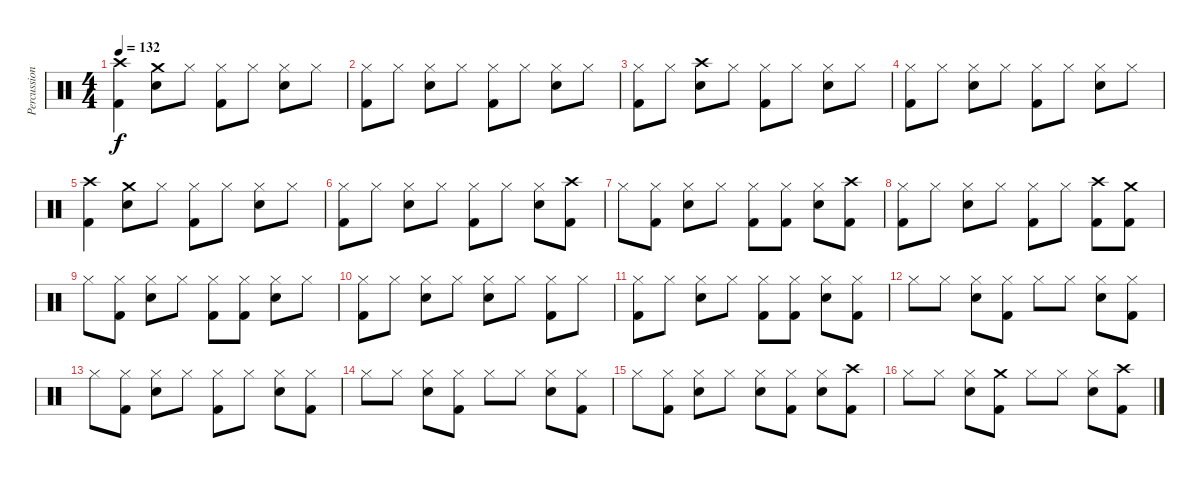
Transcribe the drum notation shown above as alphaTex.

\track ("Percussion" "Percussion") {instrument percussion}
\staff {score}
\articulation defaults
\ts (4 4)
\tempo 132
\clef neutral
\ks c
("Crash high (hit)" "Kick (hit) 2").4{dy f} ("Crash medium (hit)" "Snare (hit) 2").8 "Hi-Hat (closed)".8 ("Hi-Hat (closed)" "Kick (hit) 2").8 "Hi-Hat (closed)".8 ("Hi-Hat (closed)" "Snare (hit) 2").8 "Hi-Hat (closed)".8 |
("Hi-Hat (closed)" "Kick (hit) 2").8 "Hi-Hat (closed)".8 ("Hi-Hat (closed)" "Snare (hit) 2").8 "Hi-Hat (closed)".8 ("Hi-Hat (closed)" "Kick (hit) 2").8 "Hi-Hat (closed)".8 ("Hi-Hat (closed)" "Snare (hit) 2").8 "Hi-Hat (closed)".8 |
("Hi-Hat (closed)" "Kick (hit) 2").8 "Hi-Hat (closed)".8 ("Crash high (hit)" "Snare (hit) 2").8 "Hi-Hat (closed)".8 ("Hi-Hat (closed)" "Kick (hit) 2").8 "Hi-Hat (closed)".8 ("Hi-Hat (closed)" "Snare (hit) 2").8 "Hi-Hat (closed)".8 |
("Hi-Hat (closed)" "Kick (hit) 2").8 "Hi-Hat (closed)".8 ("Hi-Hat (closed)" "Snare (hit) 2").8 "Hi-Hat (closed)".8 ("Hi-Hat (closed)" "Kick (hit) 2").8 "Hi-Hat (closed)".8 ("Hi-Hat (closed)" "Snare (hit) 2").8 "Hi-Hat (closed)".8 |
("Crash high (hit)" "Kick (hit) 2").4 ("Crash medium (hit)" "Snare (hit) 2").8 "Hi-Hat (closed)".8 ("Hi-Hat (closed)" "Kick (hit) 2").8 "Hi-Hat (closed)".8 ("Hi-Hat (closed)" "Snare (hit) 2").8 "Hi-Hat (closed)".8 |
("Hi-Hat (closed)" "Kick (hit) 2").8 "Hi-Hat (closed)".8 ("Hi-Hat (closed)" "Snare (hit) 2").8 "Hi-Hat (closed)".8 ("Hi-Hat (closed)" "Kick (hit) 2").8 "Hi-Hat (closed)".8 ("Hi-Hat (closed)" "Snare (hit) 2").8 ("Crash high (hit)" "Kick (hit) 2").8 |
"Hi-Hat (closed)".8 ("Hi-Hat (closed)" "Kick (hit) 2").8 ("Hi-Hat (closed)" "Snare (hit) 2").8 "Hi-Hat (closed)".8 ("Hi-Hat (closed)" "Kick (hit) 2").8 ("Hi-Hat (closed)" "Kick (hit) 2").8 ("Hi-Hat (closed)" "Snare (hit) 2").8 ("Crash high (hit)" "Kick (hit) 2").8 |
("Hi-Hat (closed)" "Kick (hit) 2").8 "Hi-Hat (closed)".8 ("Hi-Hat (closed)" "Snare (hit) 2").8 "Hi-Hat (closed)".8 ("Hi-Hat (closed)" "Kick (hit) 2").8 "Hi-Hat (closed)".8 ("Crash high (hit)" "Kick (hit) 2").8 ("Crash medium (hit)" "Kick (hit) 2").8 |
"Hi-Hat (closed)".8 ("Hi-Hat (closed)" "Kick (hit) 2").8 ("Hi-Hat (closed)" "Snare (hit) 2").8 "Hi-Hat (closed)".8 ("Hi-Hat (closed)" "Kick (hit) 2").8 ("Hi-Hat (closed)" "Kick (hit) 2").8 ("Hi-Hat (closed)" "Snare (hit) 2").8 "Hi-Hat (closed)".8 |
("Hi-Hat (closed)" "Kick (hit) 2").8 "Hi-Hat (closed)".8 ("Hi-Hat (closed)" "Snare (hit) 2").8 "Hi-Hat (closed)".8 ("Hi-Hat (closed)" "Snare (hit) 2").8 "Hi-Hat (closed)".8 ("Hi-Hat (closed)" "Kick (hit) 2").8 "Hi-Hat (closed)".8 |
("Hi-Hat (closed)" "Kick (hit) 2").8 "Hi-Hat (closed)".8 ("Hi-Hat (closed)" "Snare (hit) 2").8 "Hi-Hat (closed)".8 ("Hi-Hat (closed)" "Kick (hit) 2").8 ("Hi-Hat (closed)" "Kick (hit) 2").8 ("Hi-Hat (closed)" "Snare (hit) 2").8 ("Hi-Hat (closed)" "Kick (hit) 2").8 |
"Hi-Hat (closed)".8 "Hi-Hat (closed)".8 ("Hi-Hat (closed)" "Snare (hit) 2").8 ("Hi-Hat (closed)" "Kick (hit) 2").8 "Hi-Hat (closed)".8 "Hi-Hat (closed)".8 ("Hi-Hat (closed)" "Snare (hit) 2").8 ("Hi-Hat (closed)" "Kick (hit) 2").8 |
"Hi-Hat (closed)".8 ("Hi-Hat (closed)" "Kick (hit) 2").8 ("Hi-Hat (closed)" "Snare (hit) 2").8 "Hi-Hat (closed)".8 ("Hi-Hat (closed)" "Kick (hit) 2").8 "Hi-Hat (closed)".8 ("Hi-Hat (closed)" "Snare (hit) 2").8 ("Hi-Hat (closed)" "Kick (hit) 2").8 |
"Hi-Hat (closed)".8 "Hi-Hat (closed)".8 ("Hi-Hat (closed)" "Snare (hit) 2").8 ("Hi-Hat (closed)" "Kick (hit) 2").8 "Hi-Hat (closed)".8 "Hi-Hat (closed)".8 ("Hi-Hat (closed)" "Snare (hit) 2").8 ("Hi-Hat (closed)" "Kick (hit) 2").8 |
"Hi-Hat (closed)".8 ("Hi-Hat (closed)" "Kick (hit) 2").8 ("Hi-Hat (closed)" "Snare (hit) 2").8 "Hi-Hat (closed)".8 ("Hi-Hat (closed)" "Snare (hit) 2").8 ("Hi-Hat (closed)" "Kick (hit) 2").8 ("Hi-Hat (closed)" "Snare (hit) 2").8 ("Crash high (hit)" "Kick (hit) 2").8 |
"Hi-Hat (closed)".8 "Hi-Hat (closed)".8 ("Hi-Hat (closed)" "Snare (hit) 2").8 ("Crash medium (hit)" "Kick (hit) 2").8 "Hi-Hat (closed)".8 "Hi-Hat (closed)".8 ("Hi-Hat (closed)" "Snare (hit) 2").8 ("Crash high (hit)" "Kick (hit) 2").8
